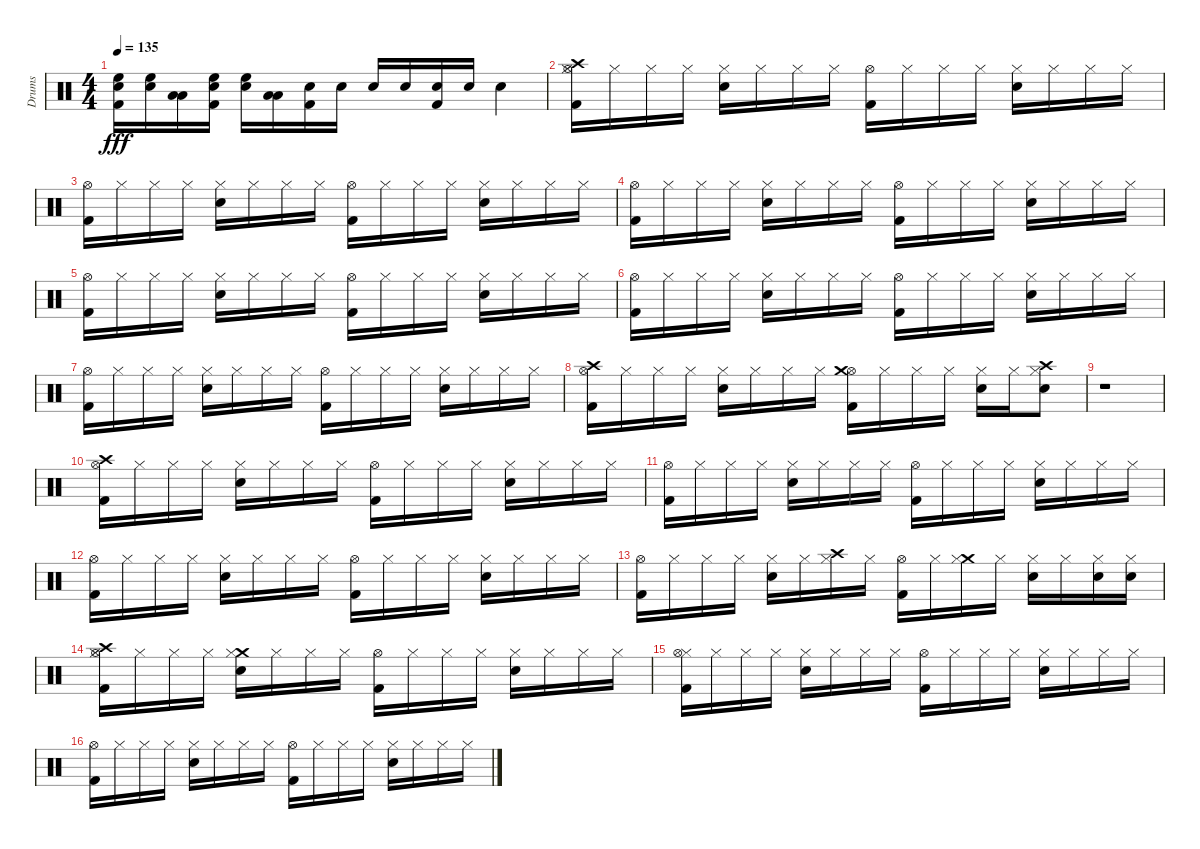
\track ("Drums" "Drums") {instrument percussion}
\staff {score}
\articulation defaults
\ts (4 4)
\tempo 135
\clef neutral
\ks c
("Snare (hit) 2" "High Floor Tom (hit)" "Kick (hit) 2").16{dy fff} ("Snare (hit) 2" "High Floor Tom (hit)").16 ("Low Floor Tom (hit)" "Low Tom (hit)").16 ("Kick (hit) 2" "Snare (hit) 2" "High Floor Tom (hit)").16 ("Snare (hit) 2" "High Floor Tom (hit)").16 ("Low Floor Tom (hit)" "Low Tom (hit)").16 ("Snare (hit) 2" "Kick (hit) 2").16 "Snare (hit) 2".16 "Snare (hit) 2".16 "Snare (hit) 2".16 ("Kick (hit) 2" "Snare (hit) 2").16 "Snare (hit) 2".16 "Snare (hit) 2".4 |
("Hi-Hat (closed)" "Crash high (hit)" "Hi-Hat (open)" "Kick (hit) 2").16 "Hi-Hat (closed)".16 "Hi-Hat (closed)".16 "Hi-Hat (closed)".16 ("Snare (hit) 2" "Hi-Hat (closed)").16 "Hi-Hat (closed)".16 "Hi-Hat (closed)".16 "Hi-Hat (closed)".16 ("Kick (hit) 2" "Hi-Hat (open)").16 "Hi-Hat (closed)".16 "Hi-Hat (closed)".16 "Hi-Hat (closed)".16 ("Snare (hit) 2" "Hi-Hat (closed)").16 "Hi-Hat (closed)".16 "Hi-Hat (closed)".16 "Hi-Hat (closed)".16 |
("Hi-Hat (open)" "Kick (hit) 2").16 "Hi-Hat (closed)".16 "Hi-Hat (closed)".16 "Hi-Hat (closed)".16 ("Snare (hit) 2" "Hi-Hat (closed)").16 "Hi-Hat (closed)".16 "Hi-Hat (closed)".16 "Hi-Hat (closed)".16 ("Kick (hit) 2" "Hi-Hat (open)").16 "Hi-Hat (closed)".16 "Hi-Hat (closed)".16 "Hi-Hat (closed)".16 ("Snare (hit) 2" "Hi-Hat (closed)").16 "Hi-Hat (closed)".16 "Hi-Hat (closed)".16 "Hi-Hat (closed)".16 |
("Hi-Hat (open)" "Kick (hit) 2").16 "Hi-Hat (closed)".16 "Hi-Hat (closed)".16 "Hi-Hat (closed)".16 ("Snare (hit) 2" "Hi-Hat (closed)").16 "Hi-Hat (closed)".16 "Hi-Hat (closed)".16 "Hi-Hat (closed)".16 ("Kick (hit) 2" "Hi-Hat (open)").16 "Hi-Hat (closed)".16 "Hi-Hat (closed)".16 "Hi-Hat (closed)".16 ("Snare (hit) 2" "Hi-Hat (closed)").16 "Hi-Hat (closed)".16 "Hi-Hat (closed)".16 "Hi-Hat (closed)".16 |
("Hi-Hat (open)" "Kick (hit) 2").16 "Hi-Hat (closed)".16 "Hi-Hat (closed)".16 "Hi-Hat (closed)".16 ("Snare (hit) 2" "Hi-Hat (closed)").16 "Hi-Hat (closed)".16 "Hi-Hat (closed)".16 "Hi-Hat (closed)".16 ("Kick (hit) 2" "Hi-Hat (open)").16 "Hi-Hat (closed)".16 "Hi-Hat (closed)".16 "Hi-Hat (closed)".16 ("Snare (hit) 2" "Hi-Hat (closed)").16 "Hi-Hat (closed)".16 "Hi-Hat (closed)".16 "Hi-Hat (closed)".16 |
("Hi-Hat (open)" "Kick (hit) 2").16 "Hi-Hat (closed)".16 "Hi-Hat (closed)".16 "Hi-Hat (closed)".16 ("Snare (hit) 2" "Hi-Hat (closed)").16 "Hi-Hat (closed)".16 "Hi-Hat (closed)".16 "Hi-Hat (closed)".16 ("Kick (hit) 2" "Hi-Hat (open)").16 "Hi-Hat (closed)".16 "Hi-Hat (closed)".16 "Hi-Hat (closed)".16 ("Snare (hit) 2" "Hi-Hat (closed)").16 "Hi-Hat (closed)".16 "Hi-Hat (closed)".16 "Hi-Hat (closed)".16 |
("Hi-Hat (open)" "Kick (hit) 2").16 "Hi-Hat (closed)".16 "Hi-Hat (closed)".16 "Hi-Hat (closed)".16 ("Snare (hit) 2" "Hi-Hat (closed)").16 "Hi-Hat (closed)".16 "Hi-Hat (closed)".16 "Hi-Hat (closed)".16 ("Kick (hit) 2" "Hi-Hat (open)").16 "Hi-Hat (closed)".16 "Hi-Hat (closed)".16 "Hi-Hat (closed)".16 ("Snare (hit) 2" "Hi-Hat (closed)").16 "Hi-Hat (closed)".16 "Hi-Hat (closed)".16 "Hi-Hat (closed)".16 |
("Crash high (hit)" "Hi-Hat (open)" "Kick (hit) 2").16 "Hi-Hat (closed)".16 "Hi-Hat (closed)".16 "Hi-Hat (closed)".16 ("Snare (hit) 2" "Hi-Hat (closed)").16 "Hi-Hat (closed)".16 "Hi-Hat (closed)".16 "Hi-Hat (closed)".16 ("Kick (hit) 2" "Hi-Hat (open)" "Crash medium (hit)").16 "Hi-Hat (closed)".16 "Hi-Hat (closed)".16 "Hi-Hat (closed)".16 ("Snare (hit) 2" "Hi-Hat (closed)").16 "Hi-Hat (closed)".16 ("Snare (hit) 2" "Crash high (hit)" "Hi-Hat (closed)").8 |
r.1 |
("Crash high (hit)" "Hi-Hat (open)" "Kick (hit) 2").16 "Hi-Hat (closed)".16 "Hi-Hat (closed)".16 "Hi-Hat (closed)".16 ("Snare (hit) 2" "Hi-Hat (closed)").16 "Hi-Hat (closed)".16 "Hi-Hat (closed)".16 "Hi-Hat (closed)".16 ("Kick (hit) 2" "Hi-Hat (open)").16 "Hi-Hat (closed)".16 "Hi-Hat (closed)".16 "Hi-Hat (closed)".16 ("Snare (hit) 2" "Hi-Hat (closed)").16 "Hi-Hat (closed)".16 "Hi-Hat (closed)".16 "Hi-Hat (closed)".16 |
("Hi-Hat (open)" "Kick (hit) 2").16 "Hi-Hat (closed)".16 "Hi-Hat (closed)".16 "Hi-Hat (closed)".16 ("Snare (hit) 2" "Hi-Hat (closed)").16 "Hi-Hat (closed)".16 "Hi-Hat (closed)".16 "Hi-Hat (closed)".16 ("Kick (hit) 2" "Hi-Hat (open)").16 "Hi-Hat (closed)".16 "Hi-Hat (closed)".16 "Hi-Hat (closed)".16 ("Snare (hit) 2" "Hi-Hat (closed)").16 "Hi-Hat (closed)".16 "Hi-Hat (closed)".16 "Hi-Hat (closed)".16 |
("Hi-Hat (open)" "Kick (hit) 2").16 "Hi-Hat (closed)".16 "Hi-Hat (closed)".16 "Hi-Hat (closed)".16 ("Snare (hit) 2" "Hi-Hat (closed)").16 "Hi-Hat (closed)".16 "Hi-Hat (closed)".16 "Hi-Hat (closed)".16 ("Kick (hit) 2" "Hi-Hat (open)").16 "Hi-Hat (closed)".16 "Hi-Hat (closed)".16 "Hi-Hat (closed)".16 ("Snare (hit) 2" "Hi-Hat (closed)").16 "Hi-Hat (closed)".16 "Hi-Hat (closed)".16 "Hi-Hat (closed)".16 |
("Hi-Hat (open)" "Kick (hit) 2").16 "Hi-Hat (closed)".16 "Hi-Hat (closed)".16 "Hi-Hat (closed)".16 ("Snare (hit) 2" "Hi-Hat (closed)").16 "Hi-Hat (closed)".16 ("Crash high (hit)" "Hi-Hat (closed)").16 "Hi-Hat (closed)".16 ("Kick (hit) 2" "Hi-Hat (open)").16 "Hi-Hat (closed)".16 ("Crash medium (hit)" "Hi-Hat (closed)").16 "Hi-Hat (closed)".16 ("Snare (hit) 2" "Hi-Hat (closed)").16 "Hi-Hat (closed)".16 ("Snare (hit) 2" "Hi-Hat (closed)").16 ("Snare (hit) 2" "Hi-Hat (closed)").16 |
("Hi-Hat (closed)" "Crash high (hit)" "Hi-Hat (open)" "Kick (hit) 2").16 "Hi-Hat (closed)".16 "Hi-Hat (closed)".16 "Hi-Hat (closed)".16 ("Crash medium (hit)" "Snare (hit) 2" "Hi-Hat (closed)").16 "Hi-Hat (closed)".16 "Hi-Hat (closed)".16 "Hi-Hat (closed)".16 ("Kick (hit) 2" "Hi-Hat (open)").16 "Hi-Hat (closed)".16 "Hi-Hat (closed)".16 "Hi-Hat (closed)".16 ("Snare (hit) 2" "Hi-Hat (closed)").16 "Hi-Hat (closed)".16 "Hi-Hat (closed)".16 "Hi-Hat (closed)".16 |
("Hi-Hat (closed)" "Hi-Hat (open)" "Kick (hit) 2").16 "Hi-Hat (closed)".16 "Hi-Hat (closed)".16 "Hi-Hat (closed)".16 ("Snare (hit) 2" "Hi-Hat (closed)").16 "Hi-Hat (closed)".16 "Hi-Hat (closed)".16 "Hi-Hat (closed)".16 ("Kick (hit) 2" "Hi-Hat (open)").16 "Hi-Hat (closed)".16 "Hi-Hat (closed)".16 "Hi-Hat (closed)".16 ("Snare (hit) 2" "Hi-Hat (closed)").16 "Hi-Hat (closed)".16 "Hi-Hat (closed)".16 "Hi-Hat (closed)".16 |
("Hi-Hat (open)" "Kick (hit) 2").16 "Hi-Hat (closed)".16 "Hi-Hat (closed)".16 "Hi-Hat (closed)".16 ("Snare (hit) 2" "Hi-Hat (closed)").16 "Hi-Hat (closed)".16 "Hi-Hat (closed)".16 "Hi-Hat (closed)".16 ("Kick (hit) 2" "Hi-Hat (open)").16 "Hi-Hat (closed)".16 "Hi-Hat (closed)".16 "Hi-Hat (closed)".16 ("Snare (hit) 2" "Hi-Hat (closed)").16 "Hi-Hat (closed)".16 "Hi-Hat (closed)".16 "Hi-Hat (closed)".16
